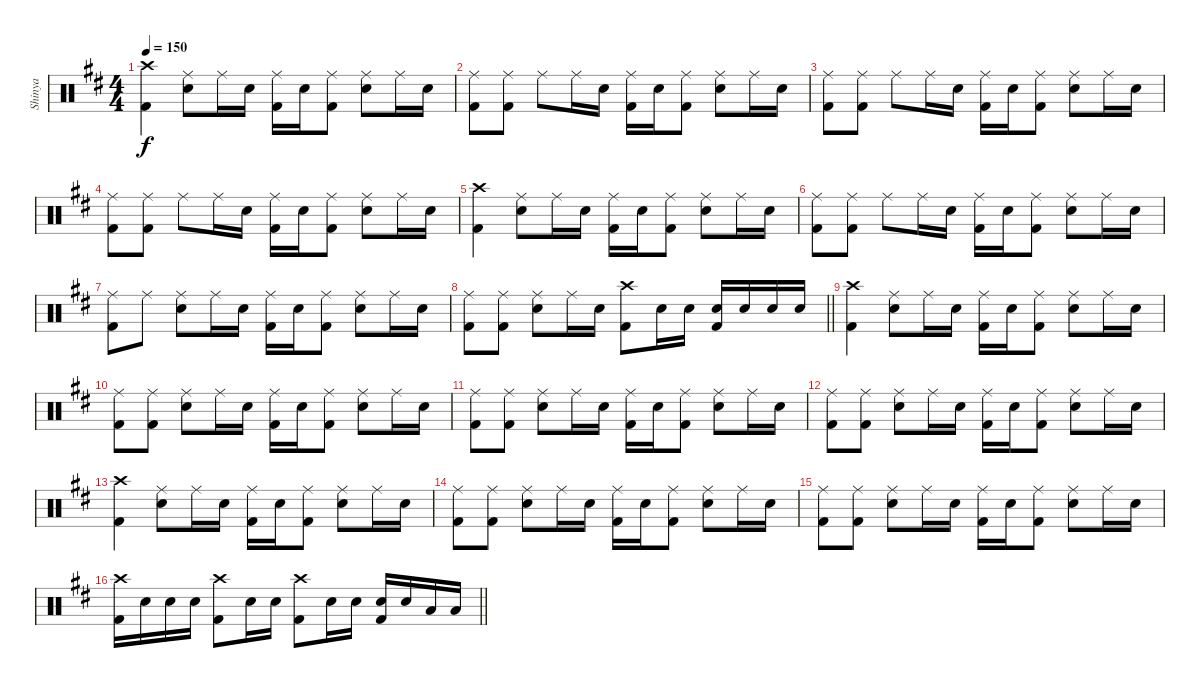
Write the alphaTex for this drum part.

\track ("Shinya" "Shinya") {instrument percussion}
\staff {score}
\articulation defaults
\ts (4 4)
\tempo 150
\clef neutral
\ks d
("Crash high (hit)" "Kick (hit) 2").4{dy f} ("Ride (middle)" "Electric Snare (hit)").8 "Ride (middle)".16 "Electric Snare (hit)".16 ("Ride (middle)" "Kick (hit) 2").16 "Electric Snare (hit)".16 ("Ride (middle)" "Kick (hit) 2").8 ("Ride (middle)" "Electric Snare (hit)").8 "Ride (middle)".16 "Electric Snare (hit)".16 |
("Ride (middle)" "Kick (hit) 2").8 ("Ride (middle)" "Kick (hit) 2").8 "Ride (middle)".8 "Ride (middle)".16 "Electric Snare (hit)".16 ("Ride (middle)" "Kick (hit) 2").16 "Electric Snare (hit)".16 ("Ride (middle)" "Kick (hit) 2").8 ("Ride (middle)" "Electric Snare (hit)").8 "Ride (middle)".16 "Electric Snare (hit)".16 |
("Ride (middle)" "Kick (hit) 2").8 ("Ride (middle)" "Kick (hit) 2").8 "Ride (middle)".8 "Ride (middle)".16 "Electric Snare (hit)".16 ("Ride (middle)" "Kick (hit) 2").16 "Electric Snare (hit)".16 ("Ride (middle)" "Kick (hit) 2").8 ("Ride (middle)" "Electric Snare (hit)").8 "Ride (middle)".16 "Electric Snare (hit)".16 |
("Ride (middle)" "Kick (hit) 2").8 ("Ride (middle)" "Kick (hit) 2").8 "Ride (middle)".8 "Ride (middle)".16 "Electric Snare (hit)".16 ("Ride (middle)" "Kick (hit) 2").16 "Electric Snare (hit)".16 ("Ride (middle)" "Kick (hit) 2").8 ("Ride (middle)" "Electric Snare (hit)").8 "Ride (middle)".16 "Electric Snare (hit)".16 |
("Crash high (hit)" "Kick (hit) 2").4 ("Ride (middle)" "Electric Snare (hit)").8 "Ride (middle)".16 "Electric Snare (hit)".16 ("Ride (middle)" "Kick (hit) 2").16 "Electric Snare (hit)".16 ("Ride (middle)" "Kick (hit) 2").8 ("Ride (middle)" "Electric Snare (hit)").8 "Ride (middle)".16 "Electric Snare (hit)".16 |
("Ride (middle)" "Kick (hit) 2").8 ("Ride (middle)" "Kick (hit) 2").8 "Ride (middle)".8 "Ride (middle)".16 "Electric Snare (hit)".16 ("Ride (middle)" "Kick (hit) 2").16 "Electric Snare (hit)".16 ("Ride (middle)" "Kick (hit) 2").8 ("Ride (middle)" "Electric Snare (hit)").8 "Ride (middle)".16 "Electric Snare (hit)".16 |
("Ride (middle)" "Kick (hit) 2").8 "Ride (middle)".8 ("Ride (middle)" "Electric Snare (hit)").8 "Ride (middle)".16 "Electric Snare (hit)".16 ("Ride (middle)" "Kick (hit) 2").16 "Electric Snare (hit)".16 ("Ride (middle)" "Kick (hit) 2").8 ("Ride (middle)" "Electric Snare (hit)").8 "Ride (middle)".16 "Electric Snare (hit)".16 |
\barLineRight lightlight
("Ride (middle)" "Kick (hit) 2").8 ("Ride (middle)" "Kick (hit) 2").8 ("Ride (middle)" "Electric Snare (hit)").8 "Ride (middle)".16 "Electric Snare (hit)".16 ("Crash high (hit)" "Kick (hit) 2").8 "Electric Snare (hit)".16 "Electric Snare (hit)".16 ("Electric Snare (hit)" "Kick (hit) 2").16 "Electric Snare (hit)".16 "Electric Snare (hit)".16 "Electric Snare (hit)".16 |
("Crash high (hit)" "Kick (hit) 2").4 ("Ride (middle)" "Electric Snare (hit)").8 "Ride (middle)".16 "Electric Snare (hit)".16 ("Ride (middle)" "Kick (hit) 2").16 "Electric Snare (hit)".16 ("Ride (middle)" "Kick (hit) 2").8 ("Ride (middle)" "Electric Snare (hit)").8 "Ride (middle)".16 "Electric Snare (hit)".16 |
("Ride (middle)" "Kick (hit) 2").8 ("Ride (middle)" "Kick (hit) 2").8 ("Ride (middle)" "Electric Snare (hit)").8 "Ride (middle)".16 "Electric Snare (hit)".16 ("Ride (middle)" "Kick (hit) 2").16 "Electric Snare (hit)".16 ("Ride (middle)" "Kick (hit) 2").8 ("Ride (middle)" "Electric Snare (hit)").8 "Ride (middle)".16 "Electric Snare (hit)".16 |
("Ride (middle)" "Kick (hit) 2").8 ("Ride (middle)" "Kick (hit) 2").8 ("Ride (middle)" "Electric Snare (hit)").8 "Ride (middle)".16 "Electric Snare (hit)".16 ("Ride (middle)" "Kick (hit) 2").16 "Electric Snare (hit)".16 ("Ride (middle)" "Kick (hit) 2").8 ("Ride (middle)" "Electric Snare (hit)").8 "Ride (middle)".16 "Electric Snare (hit)".16 |
("Ride (middle)" "Kick (hit) 2").8 ("Ride (middle)" "Kick (hit) 2").8 ("Ride (middle)" "Electric Snare (hit)").8 "Ride (middle)".16 "Electric Snare (hit)".16 ("Ride (middle)" "Kick (hit) 2").16 "Electric Snare (hit)".16 ("Ride (middle)" "Kick (hit) 2").8 ("Ride (middle)" "Electric Snare (hit)").8 "Ride (middle)".16 "Electric Snare (hit)".16 |
("Crash high (hit)" "Kick (hit) 2").4 ("Ride (middle)" "Electric Snare (hit)").8 "Ride (middle)".16 "Electric Snare (hit)".16 ("Ride (middle)" "Kick (hit) 2").16 "Electric Snare (hit)".16 ("Ride (middle)" "Kick (hit) 2").8 ("Ride (middle)" "Electric Snare (hit)").8 "Ride (middle)".16 "Electric Snare (hit)".16 |
("Ride (middle)" "Kick (hit) 2").8 ("Ride (middle)" "Kick (hit) 2").8 ("Ride (middle)" "Electric Snare (hit)").8 "Ride (middle)".16 "Electric Snare (hit)".16 ("Ride (middle)" "Kick (hit) 2").16 "Electric Snare (hit)".16 ("Ride (middle)" "Kick (hit) 2").8 ("Ride (middle)" "Electric Snare (hit)").8 "Ride (middle)".16 "Electric Snare (hit)".16 |
("Ride (middle)" "Kick (hit) 2").8 ("Ride (middle)" "Kick (hit) 2").8 ("Ride (middle)" "Electric Snare (hit)").8 "Ride (middle)".16 "Electric Snare (hit)".16 ("Ride (middle)" "Kick (hit) 2").16 "Electric Snare (hit)".16 ("Ride (middle)" "Kick (hit) 2").8 ("Ride (middle)" "Electric Snare (hit)").8 "Ride (middle)".16 "Electric Snare (hit)".16 |
\barLineRight lightlight
("Crash high (hit)" "Kick (hit) 2").16 "Electric Snare (hit)".16 "Electric Snare (hit)".16 "Electric Snare (hit)".16 ("Crash high (hit)" "Kick (hit) 2").8 "Electric Snare (hit)".16 "Electric Snare (hit)".16 ("Crash high (hit)" "Kick (hit) 2").8 "Electric Snare (hit)".16 "Electric Snare (hit)".16 ("Electric Snare (hit)" "Kick (hit) 2").16 "Electric Snare (hit)".16 "Low Tom (hit)".16 "Low Tom (hit)".16
